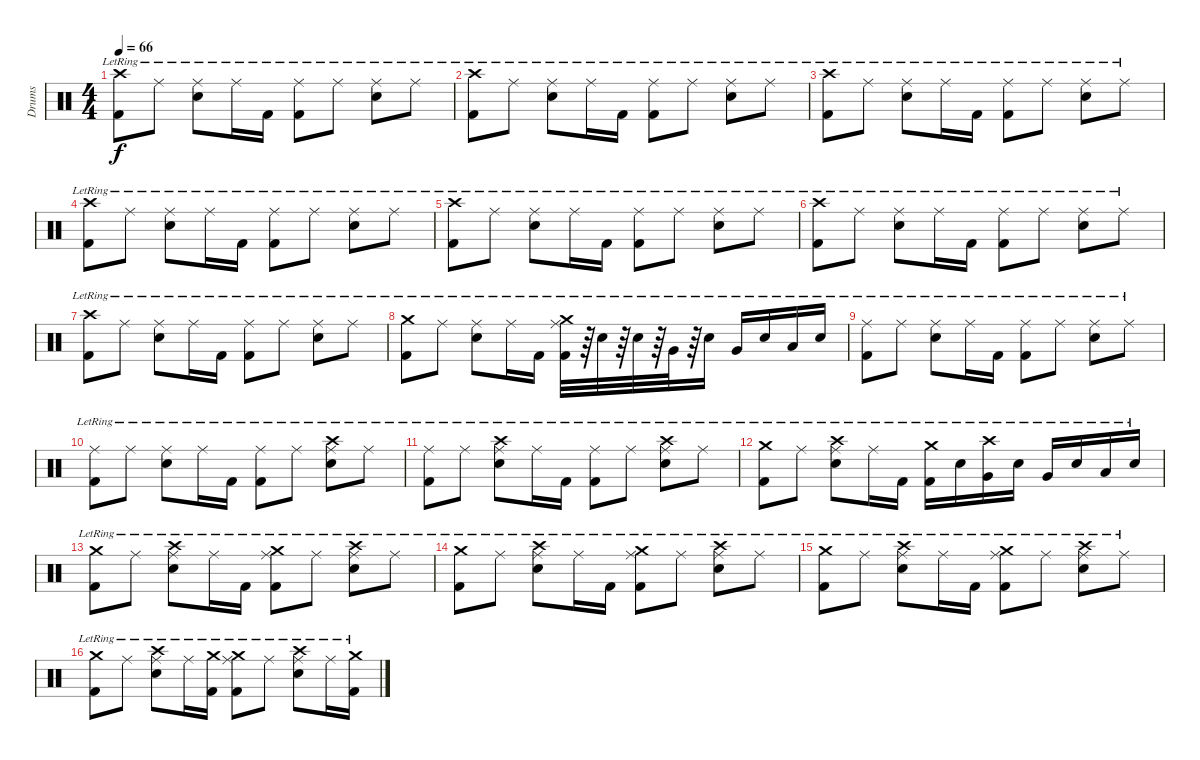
\track ("Drums" "Drums") {instrument percussion}
\staff {score}
\articulation defaults
\ts (4 4)
\tempo 66
\clef neutral
\ks c
("Crash high (hit)"{lr} "Kick (hit) 2"{lr}).8{dy f} "Ride (middle)"{lr}.8 ("Snare (hit) 2"{lr} "Ride (middle)"{lr}).8 "Ride (middle)"{lr}.16 "Kick (hit) 2"{lr}.16 ("Kick (hit) 2"{lr} "Ride (middle)"{lr}).8 "Ride (middle)"{lr}.8 ("Snare (hit) 2"{lr} "Ride (middle)"{lr}).8 "Ride (middle)"{lr}.8 |
("Crash high (hit)"{lr} "Kick (hit) 2"{lr}).8 "Ride (middle)"{lr}.8 ("Snare (hit) 2"{lr} "Ride (middle)"{lr}).8 "Ride (middle)"{lr}.16 "Kick (hit) 2"{lr}.16 ("Kick (hit) 2"{lr} "Ride (middle)"{lr}).8 "Ride (middle)"{lr}.8 ("Snare (hit) 2"{lr} "Ride (middle)"{lr}).8 "Ride (middle)"{lr}.8 |
("Crash high (hit)"{lr} "Kick (hit) 2"{lr}).8 "Ride (middle)"{lr}.8 ("Snare (hit) 2"{lr} "Ride (middle)"{lr}).8 "Ride (middle)"{lr}.16 "Kick (hit) 2"{lr}.16 ("Kick (hit) 2"{lr} "Ride (middle)"{lr}).8 "Ride (middle)"{lr}.8 ("Snare (hit) 2"{lr} "Ride (middle)"{lr}).8 "Ride (middle)"{lr}.8 |
("Crash high (hit)"{lr} "Kick (hit) 2"{lr}).8 "Ride (middle)"{lr}.8 ("Snare (hit) 2"{lr} "Ride (middle)"{lr}).8 "Ride (middle)"{lr}.16 "Kick (hit) 2"{lr}.16 ("Kick (hit) 2"{lr} "Ride (middle)"{lr}).8 "Ride (middle)"{lr}.8 ("Snare (hit) 2"{lr} "Ride (middle)"{lr}).8 "Ride (middle)"{lr}.8 |
("Crash high (hit)"{lr} "Kick (hit) 2"{lr}).8 "Ride (middle)"{lr}.8 ("Snare (hit) 2"{lr} "Ride (middle)"{lr}).8 "Ride (middle)"{lr}.16 "Kick (hit) 2"{lr}.16 ("Kick (hit) 2"{lr} "Ride (middle)"{lr}).8 "Ride (middle)"{lr}.8 ("Snare (hit) 2"{lr} "Ride (middle)"{lr}).8 "Ride (middle)"{lr}.8 |
("Crash high (hit)"{lr} "Kick (hit) 2"{lr}).8 "Ride (middle)"{lr}.8 ("Snare (hit) 2"{lr} "Ride (middle)"{lr}).8 "Ride (middle)"{lr}.16 "Kick (hit) 2"{lr}.16 ("Kick (hit) 2"{lr} "Ride (middle)"{lr}).8 "Ride (middle)"{lr}.8 ("Snare (hit) 2"{lr} "Ride (middle)"{lr}).8 "Ride (middle)"{lr}.8 |
("Crash high (hit)"{lr} "Kick (hit) 2"{lr}).8 "Ride (middle)"{lr}.8 ("Snare (hit) 2"{lr} "Ride (middle)"{lr}).8 "Ride (middle)"{lr}.16 "Kick (hit) 2"{lr}.16 ("Kick (hit) 2"{lr} "Ride (middle)"{lr}).8 "Ride (middle)"{lr}.8 ("Snare (hit) 2"{lr} "Ride (middle)"{lr}).8 "Ride (middle)"{lr}.8 |
("Kick (hit) 2"{lr} "Crash medium (hit)"{lr}).8 "Ride (middle)"{lr}.8 ("Snare (hit) 2"{lr} "Ride (middle)"{lr}).8 "Ride (middle)"{lr}.16 "Kick (hit) 2"{lr}.16 ("Kick (hit) 2"{lr} "Crash medium (hit)"{lr} "Ride (middle)"{lr}).32 r.64 "Snare (hit) 2"{lr}.32 r.64 "Snare (hit) 2"{lr}.32 r.64 "Very Low Tom (hit)"{lr}.32 r.64 "Snare (hit) 2"{lr}.16 "Very Low Tom (hit)"{lr}.16 "Snare (hit) 2"{lr}.16 "Low Floor Tom (hit)"{lr}.16 "Snare (hit) 2"{lr}.16 |
("Ride (middle)"{lr} "Kick (hit) 2"{lr}).8 "Ride (middle)"{lr}.8 ("Snare (hit) 2"{lr} "Ride (middle)"{lr}).8 "Ride (middle)"{lr}.16 "Kick (hit) 2"{lr}.16 ("Kick (hit) 2"{lr} "Ride (middle)"{lr}).8 "Ride (middle)"{lr}.8 ("Snare (hit) 2"{lr} "Ride (middle)"{lr}).8 "Ride (middle)"{lr}.8 |
("Ride (middle)"{lr} "Kick (hit) 2"{lr}).8 "Ride (middle)"{lr}.8 ("Snare (hit) 2"{lr} "Ride (middle)"{lr}).8 "Ride (middle)"{lr}.16 "Kick (hit) 2"{lr}.16 ("Kick (hit) 2"{lr} "Ride (middle)"{lr}).8 "Ride (middle)"{lr}.8 ("Snare (hit) 2"{lr} "Ride (middle)"{lr} "Crash high (hit)").8 "Ride (middle)"{lr}.8 |
("Ride (middle)"{lr} "Kick (hit) 2"{lr}).8 "Ride (middle)"{lr}.8 ("Snare (hit) 2"{lr} "Ride (middle)"{lr} "Crash high (hit)").8 "Ride (middle)"{lr}.16 "Kick (hit) 2"{lr}.16 ("Kick (hit) 2"{lr} "Ride (middle)"{lr}).8 "Ride (middle)"{lr}.8 ("Snare (hit) 2"{lr} "Ride (middle)"{lr} "Crash high (hit)").8 "Ride (middle)"{lr}.8 |
("Crash medium (hit)"{lr} "Kick (hit) 2"{lr}).8 "Ride (middle)"{lr}.8 ("Snare (hit) 2"{lr} "Ride (middle)"{lr} "Crash high (hit)"{lr}).8 "Ride (middle)"{lr}.16 "Kick (hit) 2"{lr}.16 ("Kick (hit) 2"{lr} "Crash medium (hit)").16 "Snare (hit) 2"{lr}.16 ("Very Low Tom (hit)"{lr} "Crash high (hit)").16 "Snare (hit) 2"{lr}.16 "Very Low Tom (hit)"{lr}.16 "Snare (hit) 2"{lr}.16 "Low Floor Tom (hit)"{lr}.16 "Snare (hit) 2"{lr}.16 |
("Crash medium (hit)"{lr} "Kick (hit) 2"{lr}).8 "Ride (middle)"{lr}.8 ("Snare (hit) 2"{lr} "Ride (middle)"{lr} "Crash high (hit)"{lr}).8 "Ride (middle)"{lr}.16 "Kick (hit) 2"{lr}.16 ("Kick (hit) 2"{lr} "Ride (middle)"{lr} "Crash medium (hit)"{lr}).8 "Ride (middle)"{lr}.8 ("Snare (hit) 2"{lr} "Ride (middle)"{lr} "Crash high (hit)"{lr}).8 "Ride (middle)"{lr}.8 |
("Crash medium (hit)"{lr} "Kick (hit) 2"{lr}).8 "Ride (middle)"{lr}.8 ("Snare (hit) 2"{lr} "Ride (middle)"{lr} "Crash high (hit)"{lr}).8 "Ride (middle)"{lr}.16 "Kick (hit) 2"{lr}.16 ("Kick (hit) 2"{lr} "Ride (middle)"{lr} "Crash medium (hit)"{lr}).8 "Ride (middle)"{lr}.8 ("Snare (hit) 2"{lr} "Ride (middle)"{lr} "Crash high (hit)"{lr}).8 "Ride (middle)"{lr}.8 |
("Crash medium (hit)"{lr} "Kick (hit) 2"{lr}).8 "Ride (middle)"{lr}.8 ("Snare (hit) 2"{lr} "Ride (middle)"{lr} "Crash high (hit)"{lr}).8 "Ride (middle)"{lr}.16 "Kick (hit) 2"{lr}.16 ("Kick (hit) 2"{lr} "Ride (middle)"{lr} "Crash medium (hit)"{lr}).8 "Ride (middle)"{lr}.8 ("Snare (hit) 2"{lr} "Ride (middle)"{lr} "Crash high (hit)"{lr}).8 "Ride (middle)"{lr}.8 |
("Crash medium (hit)"{lr} "Kick (hit) 2"{lr}).8 "Ride (middle)"{lr}.8 ("Snare (hit) 2"{lr} "Ride (middle)"{lr} "Crash high (hit)"{lr}).8 "Ride (middle)"{lr}.16 ("Kick (hit) 2"{lr} "Crash medium (hit)").16 ("Kick (hit) 2"{lr} "Ride (middle)"{lr} "Crash medium (hit)"{lr}).8 "Ride (middle)"{lr}.8 ("Snare (hit) 2"{lr} "Ride (middle)"{lr} "Crash high (hit)"{lr}).8 "Ride (middle)"{lr}.16 ("Kick (hit) 2"{lr} "Crash medium (hit)").16
